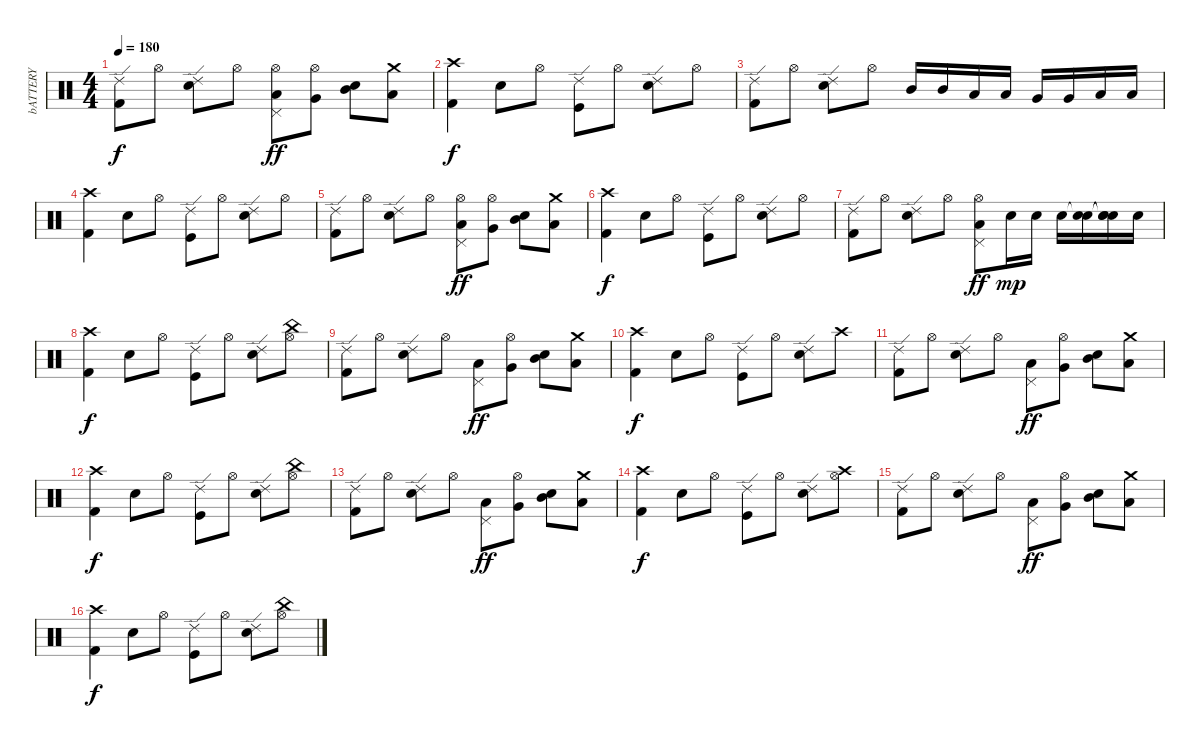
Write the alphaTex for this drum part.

\track ("bATTERY" "bATTERY") {instrument percussion}
\staff {score}
\articulation defaults
\ts (4 4)
\tempo 180
\clef neutral
\ks c
("Kick (hit) 2" "Ride (edge) 2").8{dy f} "Hi-Hat (open)".8 ("Electric Snare (hit)" "Ride (edge) 2").8 "Hi-Hat (open)".8 ("Pedal Hi-Hat (hit)" "Low Tom (hit)" "Hi-Hat (open)").8{dy ff} ("Very Low Tom (hit)" "Hi-Hat (open)").8 ("Mid Tom (hit)" "Electric Snare (hit)").8 ("Low Floor Tom (hit)" "Crash medium (hit)").8 |
("Kick (hit) 2" "Crash high (hit)").4{dy f} "Electric Snare (hit)".8 "Hi-Hat (open)".8 ("Kick (hit)" "Ride (edge) 2").8 "Hi-Hat (open)".8 ("Electric Snare (hit)" "Ride (edge) 2").8 "Hi-Hat (open)".8 |
("Kick (hit) 2" "Ride (edge) 2").8 "Hi-Hat (open)".8 ("Electric Snare (hit)" "Ride (edge) 2").8 "Hi-Hat (open)".8 "Mid Tom (hit)".16 "Mid Tom (hit)".16 "Low Tom (hit)".16 "Low Tom (hit)".16 "Very Low Tom (hit)".16 "Very Low Tom (hit)".16 "Low Floor Tom (hit)".16 "Low Floor Tom (hit)".16 |
("Kick (hit) 2" "Crash high (hit)").4 "Electric Snare (hit)".8 "Hi-Hat (open)".8 ("Kick (hit)" "Ride (edge) 2").8 "Hi-Hat (open)".8 ("Electric Snare (hit)" "Ride (edge) 2").8 "Hi-Hat (open)".8 |
("Kick (hit) 2" "Ride (edge) 2").8 "Hi-Hat (open)".8 ("Electric Snare (hit)" "Ride (edge) 2").8 "Hi-Hat (open)".8 ("Pedal Hi-Hat (hit)" "Low Tom (hit)" "Hi-Hat (open)").8{dy ff} ("Very Low Tom (hit)" "Hi-Hat (open)").8 ("Mid Tom (hit)" "Electric Snare (hit)").8 ("Low Floor Tom (hit)" "Crash medium (hit)").8 |
("Kick (hit) 2" "Crash high (hit)").4{dy f} "Electric Snare (hit)".8 "Hi-Hat (open)".8 ("Kick (hit)" "Ride (edge) 2").8 "Hi-Hat (open)".8 ("Electric Snare (hit)" "Ride (edge) 2").8 "Hi-Hat (open)".8 |
("Kick (hit) 2" "Ride (edge) 2").8 "Hi-Hat (open)".8 ("Electric Snare (hit)" "Ride (edge) 2").8 "Hi-Hat (open)".8 ("Pedal Hi-Hat (hit)" "Low Tom (hit)" "Hi-Hat (open)").8{dy ff} "Electric Snare (hit)".16{dy mp} "Electric Snare (hit)".16 "Electric Snare (hit)".16 ("Snare (hit)"{t} "Electric Snare (hit)").16 ("Snare (hit)"{t} "Snare (hit)"{t} "Snare (hit) 2").16 "Snare (hit) 2".16 |
("Kick (hit) 2" "Crash high (hit)").4{dy f} "Electric Snare (hit)".8 "Hi-Hat (open)".8 ("Kick (hit)" "Ride (edge) 2").8 "Hi-Hat (open)".8 ("Electric Snare (hit)" "Ride (edge) 2").8 ("Hi-Hat (open)" "China (hit)").8 |
("Kick (hit) 2" "Ride (edge) 2").8 "Hi-Hat (open)".8 ("Electric Snare (hit)" "Ride (edge) 2").8 "Hi-Hat (open)".8 ("Pedal Hi-Hat (hit)" "Low Tom (hit)").8{dy ff} ("Very Low Tom (hit)" "Hi-Hat (open)").8 ("Mid Tom (hit)" "Electric Snare (hit)").8 ("Low Floor Tom (hit)" "Crash medium (hit)").8 |
("Kick (hit) 2" "Crash high (hit)").4{dy f} "Electric Snare (hit)".8 "Hi-Hat (open)".8 ("Kick (hit)" "Ride (edge) 2").8 "Hi-Hat (open)".8 ("Electric Snare (hit)" "Ride (edge) 2").8 "Crash high (hit)".8 |
("Kick (hit) 2" "Ride (edge) 2").8 "Hi-Hat (open)".8 ("Electric Snare (hit)" "Ride (edge) 2").8 "Hi-Hat (open)".8 ("Pedal Hi-Hat (hit)" "Low Tom (hit)").8{dy ff} ("Very Low Tom (hit)" "Hi-Hat (open)").8 ("Mid Tom (hit)" "Electric Snare (hit)").8 ("Low Floor Tom (hit)" "Crash medium (hit)").8 |
("Kick (hit) 2" "Crash high (hit)").4{dy f} "Electric Snare (hit)".8 "Hi-Hat (open)".8 ("Kick (hit)" "Ride (edge) 2").8 "Hi-Hat (open)".8 ("Electric Snare (hit)" "Ride (edge) 2").8 ("Hi-Hat (open)" "China (hit)").8 |
("Kick (hit) 2" "Ride (edge) 2").8 "Hi-Hat (open)".8 ("Electric Snare (hit)" "Ride (edge) 2").8 "Hi-Hat (open)".8 ("Pedal Hi-Hat (hit)" "Low Tom (hit)").8{dy ff} ("Very Low Tom (hit)" "Hi-Hat (open)").8 ("Mid Tom (hit)" "Electric Snare (hit)").8 ("Low Floor Tom (hit)" "Crash medium (hit)").8 |
("Kick (hit) 2" "Crash high (hit)").4{dy f} "Electric Snare (hit)".8 "Hi-Hat (open)".8 ("Kick (hit)" "Ride (edge) 2").8 "Hi-Hat (open)".8 ("Electric Snare (hit)" "Ride (edge) 2").8 ("Hi-Hat (open)" "Crash high (hit)").8 |
("Kick (hit) 2" "Ride (edge) 2").8 "Hi-Hat (open)".8 ("Electric Snare (hit)" "Ride (edge) 2").8 "Hi-Hat (open)".8 ("Pedal Hi-Hat (hit)" "Low Tom (hit)").8{dy ff} ("Very Low Tom (hit)" "Hi-Hat (open)").8 ("Mid Tom (hit)" "Electric Snare (hit)").8 ("Low Floor Tom (hit)" "Crash medium (hit)").8 |
("Kick (hit) 2" "Crash high (hit)").4{dy f} "Electric Snare (hit)".8 "Hi-Hat (open)".8 ("Kick (hit)" "Ride (edge) 2").8 "Hi-Hat (open)".8 ("Electric Snare (hit)" "Ride (edge) 2").8 ("Hi-Hat (open)" "China (hit)").8
